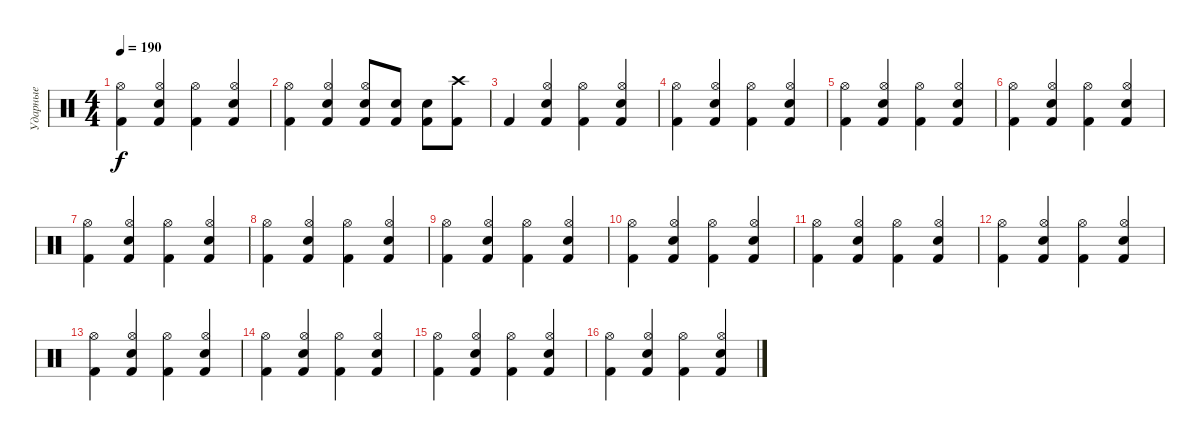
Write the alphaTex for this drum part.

\track ("Ударные" "Ударные") {instrument percussion}
\staff
\articulation defaults
\ts (4 4)
\tempo 190
\clef neutral
\ks c
("Kick (hit) 2" "Hi-Hat (open)").4{dy f} ("Kick (hit) 2" "Snare (hit) 2" "Hi-Hat (open)").4 ("Kick (hit) 2" "Hi-Hat (open)").4 ("Kick (hit) 2" "Snare (hit) 2" "Hi-Hat (open)").4 |
("Kick (hit) 2" "Hi-Hat (open)").4 ("Kick (hit) 2" "Snare (hit) 2" "Hi-Hat (open)").4 ("Kick (hit) 2" "Snare (hit) 2" "Hi-Hat (open)").8 ("Kick (hit) 2" "Snare (hit) 2").8 ("Snare (hit) 2" "Kick (hit) 2").8 ("Kick (hit) 2" "Crash high (hit)").8 |
"Kick (hit) 2".4 ("Kick (hit) 2" "Snare (hit) 2" "Hi-Hat (open)").4 ("Kick (hit) 2" "Hi-Hat (open)").4 ("Kick (hit) 2" "Snare (hit) 2" "Hi-Hat (open)").4 |
("Kick (hit) 2" "Hi-Hat (open)").4 ("Kick (hit) 2" "Snare (hit) 2" "Hi-Hat (open)").4 ("Kick (hit) 2" "Hi-Hat (open)").4 ("Kick (hit) 2" "Snare (hit) 2" "Hi-Hat (open)").4 |
("Kick (hit) 2" "Hi-Hat (open)").4 ("Kick (hit) 2" "Snare (hit) 2" "Hi-Hat (open)").4 ("Kick (hit) 2" "Hi-Hat (open)").4 ("Kick (hit) 2" "Snare (hit) 2" "Hi-Hat (open)").4 |
("Kick (hit) 2" "Hi-Hat (open)").4 ("Kick (hit) 2" "Snare (hit) 2" "Hi-Hat (open)").4 ("Kick (hit) 2" "Hi-Hat (open)").4 ("Kick (hit) 2" "Snare (hit) 2" "Hi-Hat (open)").4 |
("Kick (hit) 2" "Hi-Hat (open)").4 ("Kick (hit) 2" "Snare (hit) 2" "Hi-Hat (open)").4 ("Kick (hit) 2" "Hi-Hat (open)").4 ("Kick (hit) 2" "Snare (hit) 2" "Hi-Hat (open)").4 |
("Kick (hit) 2" "Hi-Hat (open)").4 ("Kick (hit) 2" "Snare (hit) 2" "Hi-Hat (open)").4 ("Kick (hit) 2" "Hi-Hat (open)").4 ("Kick (hit) 2" "Snare (hit) 2" "Hi-Hat (open)").4 |
("Kick (hit) 2" "Hi-Hat (open)").4 ("Kick (hit) 2" "Snare (hit) 2" "Hi-Hat (open)").4 ("Kick (hit) 2" "Hi-Hat (open)").4 ("Kick (hit) 2" "Snare (hit) 2" "Hi-Hat (open)").4 |
("Kick (hit) 2" "Hi-Hat (open)").4 ("Kick (hit) 2" "Snare (hit) 2" "Hi-Hat (open)").4 ("Kick (hit) 2" "Hi-Hat (open)").4 ("Kick (hit) 2" "Snare (hit) 2" "Hi-Hat (open)").4 |
("Kick (hit) 2" "Hi-Hat (open)").4 ("Kick (hit) 2" "Snare (hit) 2" "Hi-Hat (open)").4 ("Kick (hit) 2" "Hi-Hat (open)").4 ("Kick (hit) 2" "Snare (hit) 2" "Hi-Hat (open)").4 |
("Kick (hit) 2" "Hi-Hat (open)").4 ("Kick (hit) 2" "Snare (hit) 2" "Hi-Hat (open)").4 ("Kick (hit) 2" "Hi-Hat (open)").4 ("Kick (hit) 2" "Snare (hit) 2" "Hi-Hat (open)").4 |
("Kick (hit) 2" "Hi-Hat (open)").4 ("Kick (hit) 2" "Snare (hit) 2" "Hi-Hat (open)").4 ("Kick (hit) 2" "Hi-Hat (open)").4 ("Kick (hit) 2" "Snare (hit) 2" "Hi-Hat (open)").4 |
("Kick (hit) 2" "Hi-Hat (open)").4 ("Kick (hit) 2" "Snare (hit) 2" "Hi-Hat (open)").4 ("Kick (hit) 2" "Hi-Hat (open)").4 ("Kick (hit) 2" "Snare (hit) 2" "Hi-Hat (open)").4 |
("Kick (hit) 2" "Hi-Hat (open)").4 ("Kick (hit) 2" "Snare (hit) 2" "Hi-Hat (open)").4 ("Kick (hit) 2" "Hi-Hat (open)").4 ("Kick (hit) 2" "Snare (hit) 2" "Hi-Hat (open)").4 |
("Kick (hit) 2" "Hi-Hat (open)").4 ("Kick (hit) 2" "Snare (hit) 2" "Hi-Hat (open)").4 ("Kick (hit) 2" "Hi-Hat (open)").4 ("Kick (hit) 2" "Snare (hit) 2" "Hi-Hat (open)").4
